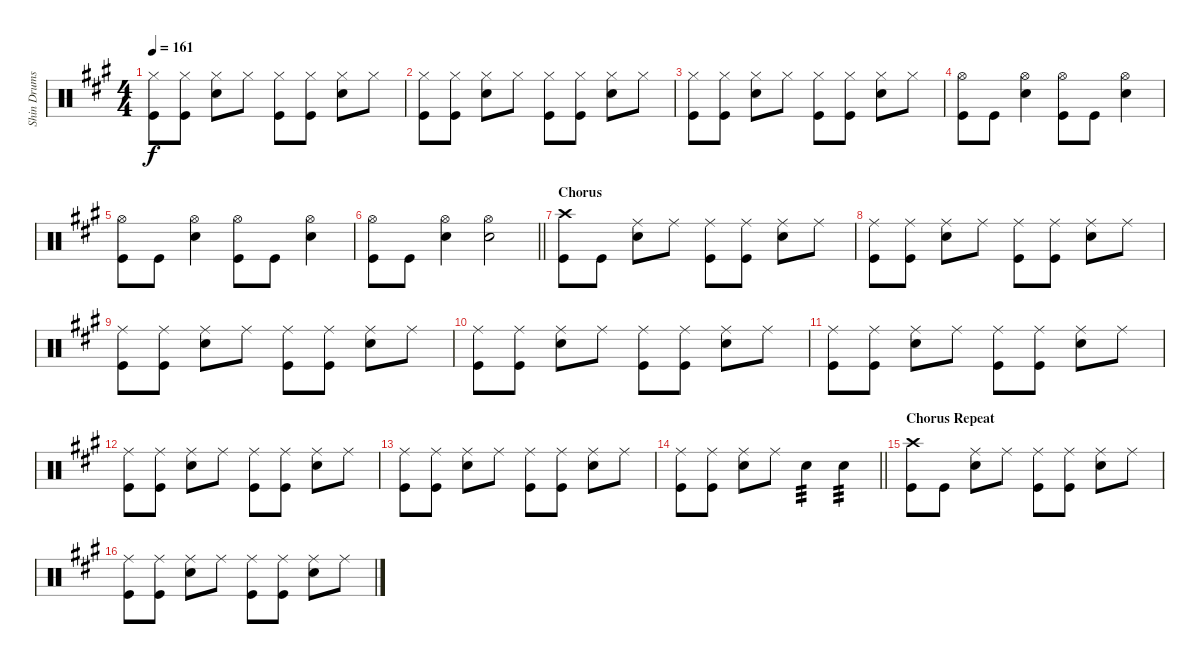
\track ("Shin Drums" "Shin Drums") {instrument percussion}
\staff {score}
\articulation defaults
\ts (4 4)
\tempo 161
\clef neutral
\ks a
("Hi-Hat (closed)" "Kick (hit)").8{dy f} ("Hi-Hat (closed)" "Kick (hit)").8 ("Hi-Hat (closed)" "Snare (hit) 2").8 "Hi-Hat (closed)".8 ("Hi-Hat (closed)" "Kick (hit)").8 ("Hi-Hat (closed)" "Kick (hit)").8 ("Hi-Hat (closed)" "Snare (hit) 2").8 "Hi-Hat (closed)".8 |
("Hi-Hat (closed)" "Kick (hit)").8 ("Hi-Hat (closed)" "Kick (hit)").8 ("Hi-Hat (closed)" "Snare (hit) 2").8 "Hi-Hat (closed)".8 ("Hi-Hat (closed)" "Kick (hit)").8 ("Hi-Hat (closed)" "Kick (hit)").8 ("Hi-Hat (closed)" "Snare (hit) 2").8 "Hi-Hat (closed)".8 |
("Hi-Hat (closed)" "Kick (hit)").8 ("Hi-Hat (closed)" "Kick (hit)").8 ("Hi-Hat (closed)" "Snare (hit) 2").8 "Hi-Hat (closed)".8 ("Hi-Hat (closed)" "Kick (hit)").8 ("Hi-Hat (closed)" "Kick (hit)").8 ("Hi-Hat (closed)" "Snare (hit) 2").8 "Hi-Hat (closed)".8 |
("Hi-Hat (open)" "Kick (hit)").8 "Kick (hit)".8 ("Hi-Hat (open)" "Snare (hit) 2").4 ("Hi-Hat (open)" "Kick (hit)").8 "Kick (hit)".8 ("Hi-Hat (open)" "Snare (hit) 2").4 |
("Hi-Hat (open)" "Kick (hit)").8 "Kick (hit)".8 ("Hi-Hat (open)" "Snare (hit) 2").4 ("Hi-Hat (open)" "Kick (hit)").8 "Kick (hit)".8 ("Hi-Hat (open)" "Snare (hit) 2").4 |
\barLineRight lightlight
("Hi-Hat (open)" "Kick (hit)").8 "Kick (hit)".8 ("Hi-Hat (open)" "Snare (hit) 2").4 ("Hi-Hat (open)" "Snare (hit) 2").2 |
\section ("" "Chorus")
("Crash high (hit)" "Kick (hit)").8 "Kick (hit)".8 ("Ride (middle)" "Snare (hit) 2").8 "Ride (middle)".8 ("Ride (middle)" "Kick (hit)").8 ("Ride (middle)" "Kick (hit)").8 ("Ride (middle)" "Snare (hit) 2").8 "Ride (middle)".8 |
("Ride (middle)" "Kick (hit)").8 ("Ride (middle)" "Kick (hit)").8 ("Ride (middle)" "Snare (hit) 2").8 "Ride (middle)".8 ("Ride (middle)" "Kick (hit)").8 ("Ride (middle)" "Kick (hit)").8 ("Ride (middle)" "Snare (hit) 2").8 "Ride (middle)".8 |
("Ride (middle)" "Kick (hit)").8 ("Ride (middle)" "Kick (hit)").8 ("Ride (middle)" "Snare (hit) 2").8 "Ride (middle)".8 ("Ride (middle)" "Kick (hit)").8 ("Ride (middle)" "Kick (hit)").8 ("Ride (middle)" "Snare (hit) 2").8 "Ride (middle)".8 |
("Ride (middle)" "Kick (hit)").8 ("Ride (middle)" "Kick (hit)").8 ("Ride (middle)" "Snare (hit) 2").8 "Ride (middle)".8 ("Ride (middle)" "Kick (hit)").8 ("Ride (middle)" "Kick (hit)").8 ("Ride (middle)" "Snare (hit) 2").8 "Ride (middle)".8 |
("Ride (middle)" "Kick (hit)").8 ("Ride (middle)" "Kick (hit)").8 ("Ride (middle)" "Snare (hit) 2").8 "Ride (middle)".8 ("Ride (middle)" "Kick (hit)").8 ("Ride (middle)" "Kick (hit)").8 ("Ride (middle)" "Snare (hit) 2").8 "Ride (middle)".8 |
("Ride (middle)" "Kick (hit)").8 ("Ride (middle)" "Kick (hit)").8 ("Ride (middle)" "Snare (hit) 2").8 "Ride (middle)".8 ("Ride (middle)" "Kick (hit)").8 ("Ride (middle)" "Kick (hit)").8 ("Ride (middle)" "Snare (hit) 2").8 "Ride (middle)".8 |
("Ride (middle)" "Kick (hit)").8 ("Ride (middle)" "Kick (hit)").8 ("Ride (middle)" "Snare (hit) 2").8 "Ride (middle)".8 ("Ride (middle)" "Kick (hit)").8 ("Ride (middle)" "Kick (hit)").8 ("Ride (middle)" "Snare (hit) 2").8 "Ride (middle)".8 |
\barLineRight lightlight
("Ride (middle)" "Kick (hit)").8 ("Ride (middle)" "Kick (hit)").8 ("Ride (middle)" "Snare (hit) 2").8 "Ride (middle)".8 "Snare (hit) 2".4{tp 3} "Snare (hit) 2".4{tp 3} |
\section ("" "Chorus Repeat")
("Crash high (hit)" "Kick (hit)").8 "Kick (hit)".8 ("Ride (middle)" "Snare (hit) 2").8 "Ride (middle)".8 ("Ride (middle)" "Kick (hit)").8 ("Ride (middle)" "Kick (hit)").8 ("Ride (middle)" "Snare (hit) 2").8 "Ride (middle)".8 |
("Ride (middle)" "Kick (hit)").8 ("Ride (middle)" "Kick (hit)").8 ("Ride (middle)" "Snare (hit) 2").8 "Ride (middle)".8 ("Ride (middle)" "Kick (hit)").8 ("Ride (middle)" "Kick (hit)").8 ("Ride (middle)" "Snare (hit) 2").8 "Ride (middle)".8
